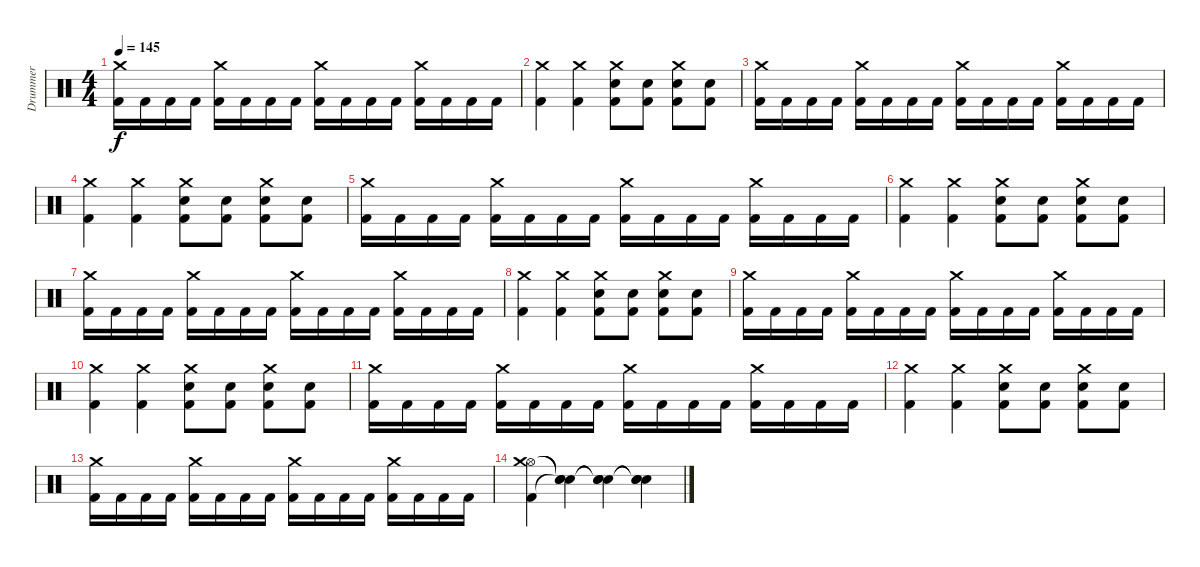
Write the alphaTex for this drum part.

\track ("Drummer" "Drummer") {instrument percussion}
\staff {score}
\articulation defaults
\ts (4 4)
\tempo 145
\clef neutral
\ks c
("Crash medium (hit)" "Kick (hit) 2").16{dy f} "Kick (hit) 2".16 "Kick (hit) 2".16 "Kick (hit) 2".16 ("Crash medium (hit)" "Kick (hit) 2").16 "Kick (hit) 2".16 "Kick (hit) 2".16 "Kick (hit) 2".16 ("Crash medium (hit)" "Kick (hit) 2").16 "Kick (hit) 2".16 "Kick (hit) 2".16 "Kick (hit) 2".16 ("Crash medium (hit)" "Kick (hit) 2").16 "Kick (hit) 2".16 "Kick (hit) 2".16 "Kick (hit) 2".16 |
("Crash medium (hit)" "Kick (hit) 2").4 ("Crash medium (hit)" "Kick (hit) 2").4 ("Crash medium (hit)" "Electric Snare (hit)" "Kick (hit) 2").8 ("Electric Snare (hit)" "Kick (hit) 2").8 ("Crash medium (hit)" "Electric Snare (hit)" "Kick (hit) 2").8 ("Electric Snare (hit)" "Kick (hit) 2").8 |
("Crash medium (hit)" "Kick (hit) 2").16 "Kick (hit) 2".16 "Kick (hit) 2".16 "Kick (hit) 2".16 ("Crash medium (hit)" "Kick (hit) 2").16 "Kick (hit) 2".16 "Kick (hit) 2".16 "Kick (hit) 2".16 ("Crash medium (hit)" "Kick (hit) 2").16 "Kick (hit) 2".16 "Kick (hit) 2".16 "Kick (hit) 2".16 ("Crash medium (hit)" "Kick (hit) 2").16 "Kick (hit) 2".16 "Kick (hit) 2".16 "Kick (hit) 2".16 |
("Crash medium (hit)" "Kick (hit) 2").4 ("Crash medium (hit)" "Kick (hit) 2").4 ("Crash medium (hit)" "Electric Snare (hit)" "Kick (hit) 2").8 ("Electric Snare (hit)" "Kick (hit) 2").8 ("Crash medium (hit)" "Electric Snare (hit)" "Kick (hit) 2").8 ("Electric Snare (hit)" "Kick (hit) 2").8 |
("Crash medium (hit)" "Kick (hit) 2").16 "Kick (hit) 2".16 "Kick (hit) 2".16 "Kick (hit) 2".16 ("Crash medium (hit)" "Kick (hit) 2").16 "Kick (hit) 2".16 "Kick (hit) 2".16 "Kick (hit) 2".16 ("Crash medium (hit)" "Kick (hit) 2").16 "Kick (hit) 2".16 "Kick (hit) 2".16 "Kick (hit) 2".16 ("Crash medium (hit)" "Kick (hit) 2").16 "Kick (hit) 2".16 "Kick (hit) 2".16 "Kick (hit) 2".16 |
("Crash medium (hit)" "Kick (hit) 2").4 ("Crash medium (hit)" "Kick (hit) 2").4 ("Crash medium (hit)" "Electric Snare (hit)" "Kick (hit) 2").8 ("Electric Snare (hit)" "Kick (hit) 2").8 ("Crash medium (hit)" "Electric Snare (hit)" "Kick (hit) 2").8 ("Electric Snare (hit)" "Kick (hit) 2").8 |
("Crash medium (hit)" "Kick (hit) 2").16 "Kick (hit) 2".16 "Kick (hit) 2".16 "Kick (hit) 2".16 ("Crash medium (hit)" "Kick (hit) 2").16 "Kick (hit) 2".16 "Kick (hit) 2".16 "Kick (hit) 2".16 ("Crash medium (hit)" "Kick (hit) 2").16 "Kick (hit) 2".16 "Kick (hit) 2".16 "Kick (hit) 2".16 ("Crash medium (hit)" "Kick (hit) 2").16 "Kick (hit) 2".16 "Kick (hit) 2".16 "Kick (hit) 2".16 |
("Crash medium (hit)" "Kick (hit) 2").4 ("Crash medium (hit)" "Kick (hit) 2").4 ("Crash medium (hit)" "Electric Snare (hit)" "Kick (hit) 2").8 ("Electric Snare (hit)" "Kick (hit) 2").8 ("Crash medium (hit)" "Electric Snare (hit)" "Kick (hit) 2").8 ("Electric Snare (hit)" "Kick (hit) 2").8 |
("Crash medium (hit)" "Kick (hit) 2").16 "Kick (hit) 2".16 "Kick (hit) 2".16 "Kick (hit) 2".16 ("Crash medium (hit)" "Kick (hit) 2").16 "Kick (hit) 2".16 "Kick (hit) 2".16 "Kick (hit) 2".16 ("Crash medium (hit)" "Kick (hit) 2").16 "Kick (hit) 2".16 "Kick (hit) 2".16 "Kick (hit) 2".16 ("Crash medium (hit)" "Kick (hit) 2").16 "Kick (hit) 2".16 "Kick (hit) 2".16 "Kick (hit) 2".16 |
("Crash medium (hit)" "Kick (hit) 2").4 ("Crash medium (hit)" "Kick (hit) 2").4 ("Crash medium (hit)" "Electric Snare (hit)" "Kick (hit) 2").8 ("Electric Snare (hit)" "Kick (hit) 2").8 ("Crash medium (hit)" "Electric Snare (hit)" "Kick (hit) 2").8 ("Electric Snare (hit)" "Kick (hit) 2").8 |
("Crash medium (hit)" "Kick (hit) 2").16 "Kick (hit) 2".16 "Kick (hit) 2".16 "Kick (hit) 2".16 ("Crash medium (hit)" "Kick (hit) 2").16 "Kick (hit) 2".16 "Kick (hit) 2".16 "Kick (hit) 2".16 ("Crash medium (hit)" "Kick (hit) 2").16 "Kick (hit) 2".16 "Kick (hit) 2".16 "Kick (hit) 2".16 ("Crash medium (hit)" "Kick (hit) 2").16 "Kick (hit) 2".16 "Kick (hit) 2".16 "Kick (hit) 2".16 |
("Crash medium (hit)" "Kick (hit) 2").4 ("Crash medium (hit)" "Kick (hit) 2").4 ("Crash medium (hit)" "Electric Snare (hit)" "Kick (hit) 2").8 ("Electric Snare (hit)" "Kick (hit) 2").8 ("Crash medium (hit)" "Electric Snare (hit)" "Kick (hit) 2").8 ("Electric Snare (hit)" "Kick (hit) 2").8 |
("Crash medium (hit)" "Kick (hit) 2").16 "Kick (hit) 2".16 "Kick (hit) 2".16 "Kick (hit) 2".16 ("Crash medium (hit)" "Kick (hit) 2").16 "Kick (hit) 2".16 "Kick (hit) 2".16 "Kick (hit) 2".16 ("Crash medium (hit)" "Kick (hit) 2").16 "Kick (hit) 2".16 "Kick (hit) 2".16 "Kick (hit) 2".16 ("Crash medium (hit)" "Kick (hit) 2").16 "Kick (hit) 2".16 "Kick (hit) 2".16 "Kick (hit) 2".16 |
("Hi-Hat (open)" "Crash medium (hit)" "Kick (hit) 2").4 ("Snare (hit)"{t} "Snare (hit)"{t} "Snare (hit)"{t}).4{volume 10} ("Snare (hit)"{t} "Snare (hit)"{t} "Snare (hit)"{t}).4{volume 6} ("Snare (hit)"{t} "Snare (hit)"{t} "Snare (hit)"{t}).4{volume 4}
